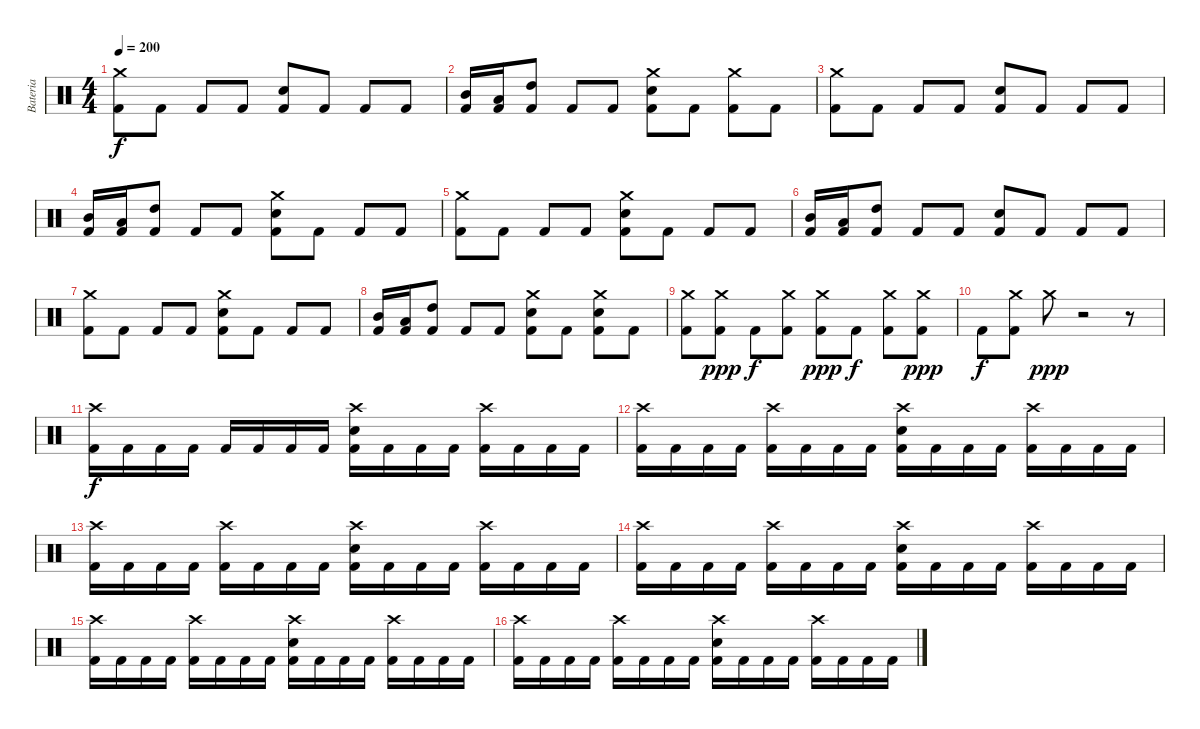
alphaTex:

\track ("Bateria" "Bateria") {instrument percussion}
\staff {score}
\articulation defaults
\ts (4 4)
\tempo 200
\clef neutral
\ks c
("Crash medium (hit)" "Kick (hit) 2").8{dy f} "Kick (hit) 2".8 "Kick (hit) 2".8 "Kick (hit) 2".8 ("Electric Snare (hit)" "Kick (hit) 2").8 "Kick (hit) 2".8 "Kick (hit) 2".8 "Kick (hit) 2".8 |
("Mid Tom (hit)" "Kick (hit) 2").16 ("Low Tom (hit)" "Kick (hit) 2").16 ("High Tom (hit)" "Kick (hit) 2").8 "Kick (hit) 2".8 "Kick (hit) 2".8 ("Crash medium (hit)" "Electric Snare (hit)" "Kick (hit) 2").8 "Kick (hit) 2".8 ("Crash medium (hit)" "Kick (hit) 2").8 "Kick (hit) 2".8 |
("Crash medium (hit)" "Kick (hit) 2").8 "Kick (hit) 2".8 "Kick (hit) 2".8 "Kick (hit) 2".8 ("Electric Snare (hit)" "Kick (hit) 2").8 "Kick (hit) 2".8 "Kick (hit) 2".8 "Kick (hit) 2".8 |
("Mid Tom (hit)" "Kick (hit) 2").16 ("Low Tom (hit)" "Kick (hit) 2").16 ("High Tom (hit)" "Kick (hit) 2").8 "Kick (hit) 2".8 "Kick (hit) 2".8 ("Crash medium (hit)" "Electric Snare (hit)" "Kick (hit) 2").8 "Kick (hit) 2".8 "Kick (hit) 2".8 "Kick (hit) 2".8 |
("Crash medium (hit)" "Kick (hit) 2").8 "Kick (hit) 2".8 "Kick (hit) 2".8 "Kick (hit) 2".8 ("Crash medium (hit)" "Electric Snare (hit)" "Kick (hit) 2").8 "Kick (hit) 2".8 "Kick (hit) 2".8 "Kick (hit) 2".8 |
("Mid Tom (hit)" "Kick (hit) 2").16 ("Low Tom (hit)" "Kick (hit) 2").16 ("High Tom (hit)" "Kick (hit) 2").8 "Kick (hit) 2".8 "Kick (hit) 2".8 ("Electric Snare (hit)" "Kick (hit) 2").8 "Kick (hit) 2".8 "Kick (hit) 2".8 "Kick (hit) 2".8 |
("Crash medium (hit)" "Kick (hit) 2").8 "Kick (hit) 2".8 "Kick (hit) 2".8 "Kick (hit) 2".8 ("Crash medium (hit)" "Electric Snare (hit)" "Kick (hit) 2").8 "Kick (hit) 2".8 "Kick (hit) 2".8 "Kick (hit) 2".8 |
("Mid Tom (hit)" "Kick (hit) 2").16 ("Low Tom (hit)" "Kick (hit) 2").16 ("High Tom (hit)" "Kick (hit) 2").8 "Kick (hit) 2".8 "Kick (hit) 2".8 ("Crash medium (hit)" "Electric Snare (hit)" "Kick (hit) 2").8 "Kick (hit) 2".8 ("Crash medium (hit)" "Electric Snare (hit)" "Kick (hit) 2").8 "Kick (hit) 2".8 |
("Crash medium (hit)" "Kick (hit) 2").8 ("Crash medium (hit)" "Kick (hit) 2").8{dy ppp} "Kick (hit) 2".8{dy f} ("Crash medium (hit)" "Kick (hit) 2").8 ("Crash medium (hit)" "Kick (hit) 2").8{dy ppp} "Kick (hit) 2".8{dy f} ("Crash medium (hit)" "Kick (hit) 2").8 ("Crash medium (hit)" "Kick (hit) 2").8{dy ppp} |
"Kick (hit) 2".8{dy f} ("Crash medium (hit)" "Kick (hit) 2").8 "Crash medium (hit)".8{dy ppp} r.2 r.8 |
("Crash high (hit)" "Kick (hit) 2").16{dy f} "Kick (hit) 2".16 "Kick (hit) 2".16 "Kick (hit) 2".16 "Kick (hit) 2".16 "Kick (hit) 2".16 "Kick (hit) 2".16 "Kick (hit) 2".16 ("Crash high (hit)" "Electric Snare (hit)" "Kick (hit) 2").16 "Kick (hit) 2".16 "Kick (hit) 2".16 "Kick (hit) 2".16 ("Crash high (hit)" "Kick (hit) 2").16 "Kick (hit) 2".16 "Kick (hit) 2".16 "Kick (hit) 2".16 |
("Crash high (hit)" "Kick (hit) 2").16 "Kick (hit) 2".16 "Kick (hit) 2".16 "Kick (hit) 2".16 ("Crash high (hit)" "Kick (hit) 2").16 "Kick (hit) 2".16 "Kick (hit) 2".16 "Kick (hit) 2".16 ("Crash high (hit)" "Electric Snare (hit)" "Kick (hit) 2").16 "Kick (hit) 2".16 "Kick (hit) 2".16 "Kick (hit) 2".16 ("Crash high (hit)" "Kick (hit) 2").16 "Kick (hit) 2".16 "Kick (hit) 2".16 "Kick (hit) 2".16 |
("Crash high (hit)" "Kick (hit) 2").16 "Kick (hit) 2".16 "Kick (hit) 2".16 "Kick (hit) 2".16 ("Crash high (hit)" "Kick (hit) 2").16 "Kick (hit) 2".16 "Kick (hit) 2".16 "Kick (hit) 2".16 ("Crash high (hit)" "Electric Snare (hit)" "Kick (hit) 2").16 "Kick (hit) 2".16 "Kick (hit) 2".16 "Kick (hit) 2".16 ("Crash high (hit)" "Kick (hit) 2").16 "Kick (hit) 2".16 "Kick (hit) 2".16 "Kick (hit) 2".16 |
("Crash high (hit)" "Kick (hit) 2").16 "Kick (hit) 2".16 "Kick (hit) 2".16 "Kick (hit) 2".16 ("Crash high (hit)" "Kick (hit) 2").16 "Kick (hit) 2".16 "Kick (hit) 2".16 "Kick (hit) 2".16 ("Crash high (hit)" "Electric Snare (hit)" "Kick (hit) 2").16 "Kick (hit) 2".16 "Kick (hit) 2".16 "Kick (hit) 2".16 ("Crash high (hit)" "Kick (hit) 2").16 "Kick (hit) 2".16 "Kick (hit) 2".16 "Kick (hit) 2".16 |
("Crash high (hit)" "Kick (hit) 2").16 "Kick (hit) 2".16 "Kick (hit) 2".16 "Kick (hit) 2".16 ("Crash high (hit)" "Kick (hit) 2").16 "Kick (hit) 2".16 "Kick (hit) 2".16 "Kick (hit) 2".16 ("Crash high (hit)" "Electric Snare (hit)" "Kick (hit) 2").16 "Kick (hit) 2".16 "Kick (hit) 2".16 "Kick (hit) 2".16 ("Crash high (hit)" "Kick (hit) 2").16 "Kick (hit) 2".16 "Kick (hit) 2".16 "Kick (hit) 2".16 |
("Crash high (hit)" "Kick (hit) 2").16 "Kick (hit) 2".16 "Kick (hit) 2".16 "Kick (hit) 2".16 ("Crash high (hit)" "Kick (hit) 2").16 "Kick (hit) 2".16 "Kick (hit) 2".16 "Kick (hit) 2".16 ("Crash high (hit)" "Electric Snare (hit)" "Kick (hit) 2").16 "Kick (hit) 2".16 "Kick (hit) 2".16 "Kick (hit) 2".16 ("Crash high (hit)" "Kick (hit) 2").16 "Kick (hit) 2".16 "Kick (hit) 2".16 "Kick (hit) 2".16
